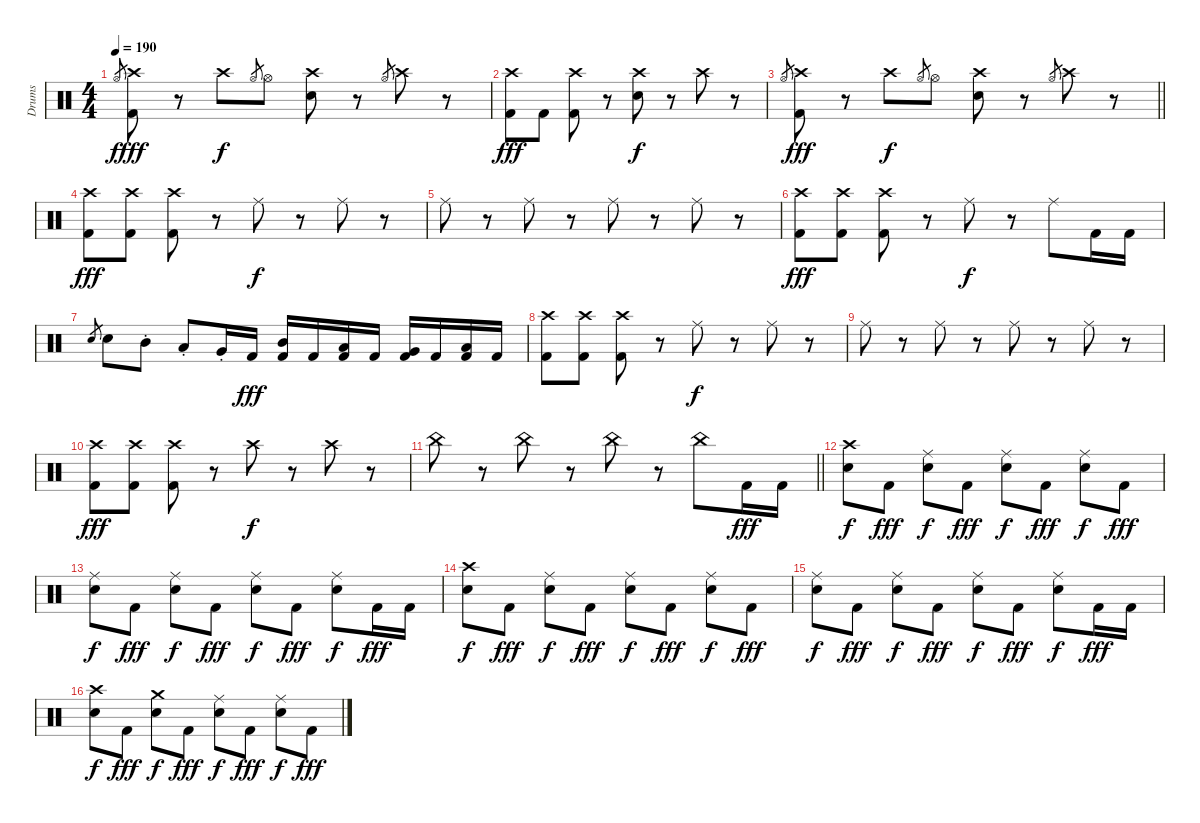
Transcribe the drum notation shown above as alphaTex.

\track ("Drums" "Drums") {instrument percussion}
\staff {score}
\articulation defaults
\ts (4 4)
\tempo 190
\clef neutral
\ks c "Hi-Hat (open)".8{gr dy f}
("Crash high (hit)" "Kick (hit) 2").8{dy fff} r.8 "Crash high (hit)".8{dy f} "Hi-Hat (open)".8{gr} "Hi-Hat (open)".8 ("Crash high (hit)" "Electric Snare (hit)").8 r.8 "Hi-Hat (open)".8{gr} "Crash high (hit)".8 r.8 |
("Crash high (hit)" "Kick (hit) 2").8{dy fff} "Kick (hit) 2".8 ("Crash high (hit)" "Kick (hit) 2").8 r.8 ("Crash high (hit)" "Electric Snare (hit)").8{dy f} r.8 "Crash high (hit)".8 r.8 |
\barLineRight lightlight "Hi-Hat (open)".8{gr}
("Crash high (hit)" "Kick (hit) 2").8{dy fff} r.8 "Crash high (hit)".8{dy f} "Hi-Hat (open)".8{gr} "Hi-Hat (open)".8 ("Crash high (hit)" "Electric Snare (hit)").8 r.8 "Hi-Hat (open)".8{gr} "Crash high (hit)".8 r.8 |
\section ("" "")
("Crash high (hit)" "Kick (hit) 2").8{dy fff} ("Crash high (hit)" "Kick (hit) 2").8 ("Crash high (hit)" "Kick (hit) 2").8 r.8 "Ride (middle)".8{dy f} r.8 "Ride (middle)".8 r.8 |
"Ride (middle)".8 r.8 "Ride (middle)".8 r.8 "Ride (middle)".8 r.8 "Ride (middle)".8 r.8 |
("Crash high (hit)" "Kick (hit) 2").8{dy fff} ("Crash high (hit)" "Kick (hit) 2").8 ("Crash high (hit)" "Kick (hit) 2").8 r.8 "Ride (middle)".8{dy f} r.8 "Ride (middle)".8 "Kick (hit) 2".16 "Kick (hit) 2".16 |
"Electric Snare (hit)".8{gr} "Electric Snare (hit)".8 "Mid Tom (hit)"{st}.8 "Low Tom (hit)"{st}.8 "Very Low Tom (hit)"{st}.16 "Kick (hit) 2".16{dy fff} ("Mid Tom (hit)" "Kick (hit) 2").16 "Kick (hit) 2".16 ("Low Tom (hit)" "Kick (hit) 2").16 "Kick (hit) 2".16 ("Very Low Tom (hit)" "Kick (hit) 2").16 "Kick (hit) 2".16 ("Low Floor Tom (hit)" "Kick (hit) 2").16 "Kick (hit) 2".16 |
("Crash high (hit)" "Kick (hit) 2").8 ("Crash high (hit)" "Kick (hit) 2").8 ("Crash high (hit)" "Kick (hit) 2").8 r.8 "Ride (middle)".8{dy f} r.8 "Ride (middle)".8 r.8 |
"Ride (middle)".8 r.8 "Ride (middle)".8 r.8 "Ride (middle)".8 r.8 "Ride (middle)".8 r.8 |
("Crash high (hit)" "Kick (hit) 2").8{dy fff} ("Crash high (hit)" "Kick (hit) 2").8 ("Crash high (hit)" "Kick (hit) 2").8 r.8 "Crash high (hit)".8{dy f} r.8 "Crash high (hit)".8 r.8 |
\barLineRight lightlight "China (hit)".8
r.8 "China (hit)".8 r.8 "China (hit)".8 r.8 "China (hit)".8 "Kick (hit) 2".16{dy fff} "Kick (hit) 2".16 |
\section ("" "")
("Crash high (hit)" "Electric Snare (hit)").8{dy f} "Kick (hit) 2".8{dy fff} ("Ride (middle)" "Electric Snare (hit)").8{dy f} "Kick (hit) 2".8{dy fff} ("Ride (middle)" "Electric Snare (hit)").8{dy f} "Kick (hit) 2".8{dy fff} ("Ride (middle)" "Electric Snare (hit)").8{dy f} "Kick (hit) 2".8{dy fff} |
("Ride (middle)" "Electric Snare (hit)").8{dy f} "Kick (hit) 2".8{dy fff} ("Ride (middle)" "Electric Snare (hit)").8{dy f} "Kick (hit) 2".8{dy fff} ("Ride (middle)" "Electric Snare (hit)").8{dy f} "Kick (hit) 2".8{dy fff} ("Ride (middle)" "Electric Snare (hit)").8{dy f} "Kick (hit) 2".16{dy fff} "Kick (hit) 2".16 |
("Crash high (hit)" "Electric Snare (hit)").8{dy f} "Kick (hit) 2".8{dy fff} ("Ride (middle)" "Electric Snare (hit)").8{dy f} "Kick (hit) 2".8{dy fff} ("Ride (middle)" "Electric Snare (hit)").8{dy f} "Kick (hit) 2".8{dy fff} ("Ride (middle)" "Electric Snare (hit)").8{dy f} "Kick (hit) 2".8{dy fff} |
("Ride (middle)" "Electric Snare (hit)").8{dy f} "Kick (hit) 2".8{dy fff} ("Ride (middle)" "Electric Snare (hit)").8{dy f} "Kick (hit) 2".8{dy fff} ("Ride (middle)" "Electric Snare (hit)").8{dy f} "Kick (hit) 2".8{dy fff} ("Ride (middle)" "Electric Snare (hit)").8{dy f} "Kick (hit) 2".16{dy fff} "Kick (hit) 2".16 |
("Crash high (hit)" "Electric Snare (hit)").8{dy f} "Kick (hit) 2".8{dy fff} ("Crash medium (hit)" "Electric Snare (hit)").8{dy f} "Kick (hit) 2".8{dy fff} ("Ride (middle)" "Electric Snare (hit)").8{dy f} "Kick (hit) 2".8{dy fff} ("Ride (middle)" "Electric Snare (hit)").8{dy f} "Kick (hit) 2".8{dy fff}
